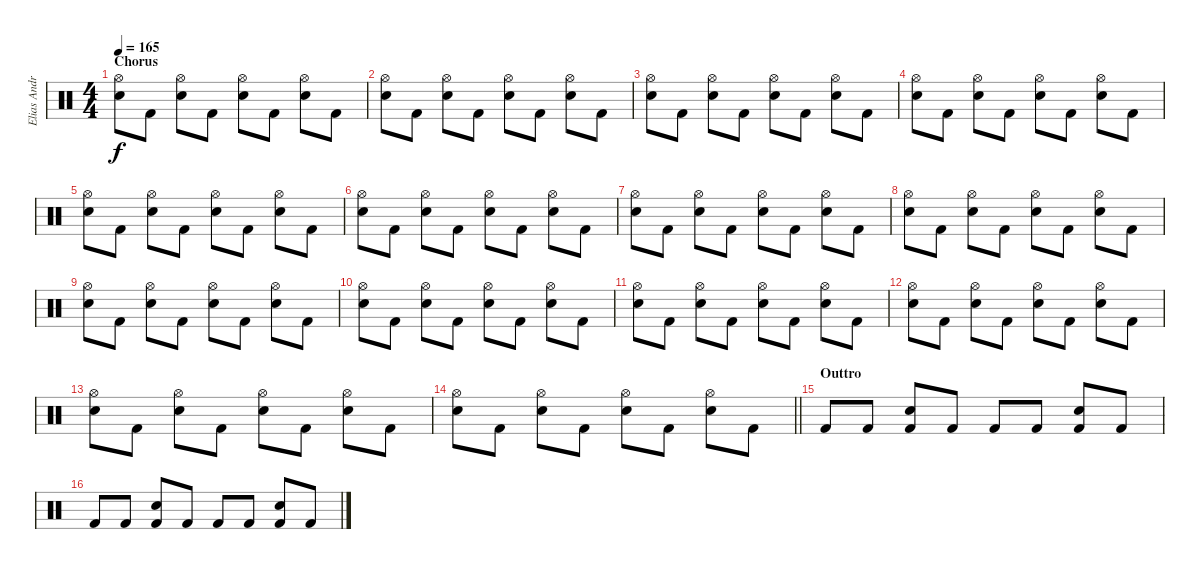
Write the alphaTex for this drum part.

\track ("Elias Andra-Drums" "Elias Andr") {instrument percussion}
\staff {score}
\articulation defaults
\ts (4 4)
\section ("" "Chorus")
\tempo 165
\clef neutral
\ks c
("Electric Snare (hit)" "Hi-Hat (open)").8{dy f} "Kick (hit) 2".8 ("Electric Snare (hit)" "Hi-Hat (open)").8 "Kick (hit) 2".8 ("Electric Snare (hit)" "Hi-Hat (open)").8 "Kick (hit) 2".8 ("Electric Snare (hit)" "Hi-Hat (open)").8 "Kick (hit) 2".8 |
("Electric Snare (hit)" "Hi-Hat (open)").8 "Kick (hit) 2".8 ("Electric Snare (hit)" "Hi-Hat (open)").8 "Kick (hit) 2".8 ("Electric Snare (hit)" "Hi-Hat (open)").8 "Kick (hit) 2".8 ("Electric Snare (hit)" "Hi-Hat (open)").8 "Kick (hit) 2".8 |
("Electric Snare (hit)" "Hi-Hat (open)").8 "Kick (hit) 2".8 ("Electric Snare (hit)" "Hi-Hat (open)").8 "Kick (hit) 2".8 ("Electric Snare (hit)" "Hi-Hat (open)").8 "Kick (hit) 2".8 ("Electric Snare (hit)" "Hi-Hat (open)").8 "Kick (hit) 2".8 |
("Electric Snare (hit)" "Hi-Hat (open)").8 "Kick (hit) 2".8 ("Electric Snare (hit)" "Hi-Hat (open)").8 "Kick (hit) 2".8 ("Electric Snare (hit)" "Hi-Hat (open)").8 "Kick (hit) 2".8 ("Electric Snare (hit)" "Hi-Hat (open)").8 "Kick (hit) 2".8 |
("Electric Snare (hit)" "Hi-Hat (open)").8 "Kick (hit) 2".8 ("Electric Snare (hit)" "Hi-Hat (open)").8 "Kick (hit) 2".8 ("Electric Snare (hit)" "Hi-Hat (open)").8 "Kick (hit) 2".8 ("Electric Snare (hit)" "Hi-Hat (open)").8 "Kick (hit) 2".8 |
("Electric Snare (hit)" "Hi-Hat (open)").8 "Kick (hit) 2".8 ("Electric Snare (hit)" "Hi-Hat (open)").8 "Kick (hit) 2".8 ("Electric Snare (hit)" "Hi-Hat (open)").8 "Kick (hit) 2".8 ("Electric Snare (hit)" "Hi-Hat (open)").8 "Kick (hit) 2".8 |
("Electric Snare (hit)" "Hi-Hat (open)").8 "Kick (hit) 2".8 ("Electric Snare (hit)" "Hi-Hat (open)").8 "Kick (hit) 2".8 ("Electric Snare (hit)" "Hi-Hat (open)").8 "Kick (hit) 2".8 ("Electric Snare (hit)" "Hi-Hat (open)").8 "Kick (hit) 2".8 |
("Electric Snare (hit)" "Hi-Hat (open)").8 "Kick (hit) 2".8 ("Electric Snare (hit)" "Hi-Hat (open)").8 "Kick (hit) 2".8 ("Electric Snare (hit)" "Hi-Hat (open)").8 "Kick (hit) 2".8 ("Electric Snare (hit)" "Hi-Hat (open)").8 "Kick (hit) 2".8 |
("Electric Snare (hit)" "Hi-Hat (open)").8 "Kick (hit) 2".8 ("Electric Snare (hit)" "Hi-Hat (open)").8 "Kick (hit) 2".8 ("Electric Snare (hit)" "Hi-Hat (open)").8 "Kick (hit) 2".8 ("Electric Snare (hit)" "Hi-Hat (open)").8 "Kick (hit) 2".8 |
("Electric Snare (hit)" "Hi-Hat (open)").8 "Kick (hit) 2".8 ("Electric Snare (hit)" "Hi-Hat (open)").8 "Kick (hit) 2".8 ("Electric Snare (hit)" "Hi-Hat (open)").8 "Kick (hit) 2".8 ("Electric Snare (hit)" "Hi-Hat (open)").8 "Kick (hit) 2".8 |
("Electric Snare (hit)" "Hi-Hat (open)").8 "Kick (hit) 2".8 ("Electric Snare (hit)" "Hi-Hat (open)").8 "Kick (hit) 2".8 ("Electric Snare (hit)" "Hi-Hat (open)").8 "Kick (hit) 2".8 ("Electric Snare (hit)" "Hi-Hat (open)").8 "Kick (hit) 2".8 |
("Electric Snare (hit)" "Hi-Hat (open)").8 "Kick (hit) 2".8 ("Electric Snare (hit)" "Hi-Hat (open)").8 "Kick (hit) 2".8 ("Electric Snare (hit)" "Hi-Hat (open)").8 "Kick (hit) 2".8 ("Electric Snare (hit)" "Hi-Hat (open)").8 "Kick (hit) 2".8 |
("Electric Snare (hit)" "Hi-Hat (open)").8 "Kick (hit) 2".8 ("Electric Snare (hit)" "Hi-Hat (open)").8 "Kick (hit) 2".8 ("Electric Snare (hit)" "Hi-Hat (open)").8 "Kick (hit) 2".8 ("Electric Snare (hit)" "Hi-Hat (open)").8 "Kick (hit) 2".8 |
\barLineRight lightlight
("Electric Snare (hit)" "Hi-Hat (open)").8 "Kick (hit) 2".8 ("Electric Snare (hit)" "Hi-Hat (open)").8 "Kick (hit) 2".8 ("Electric Snare (hit)" "Hi-Hat (open)").8 "Kick (hit) 2".8 ("Electric Snare (hit)" "Hi-Hat (open)").8 "Kick (hit) 2".8 |
\section ("" "Outtro")
"Kick (hit) 2".8 "Kick (hit) 2".8 ("Kick (hit) 2" "Electric Snare (hit)").8 "Kick (hit) 2".8 "Kick (hit) 2".8 "Kick (hit) 2".8 ("Kick (hit) 2" "Electric Snare (hit)").8 "Kick (hit) 2".8 |
"Kick (hit) 2".8 "Kick (hit) 2".8 ("Kick (hit) 2" "Electric Snare (hit)").8 "Kick (hit) 2".8 "Kick (hit) 2".8 "Kick (hit) 2".8 ("Kick (hit) 2" "Electric Snare (hit)").8 "Kick (hit) 2".8
